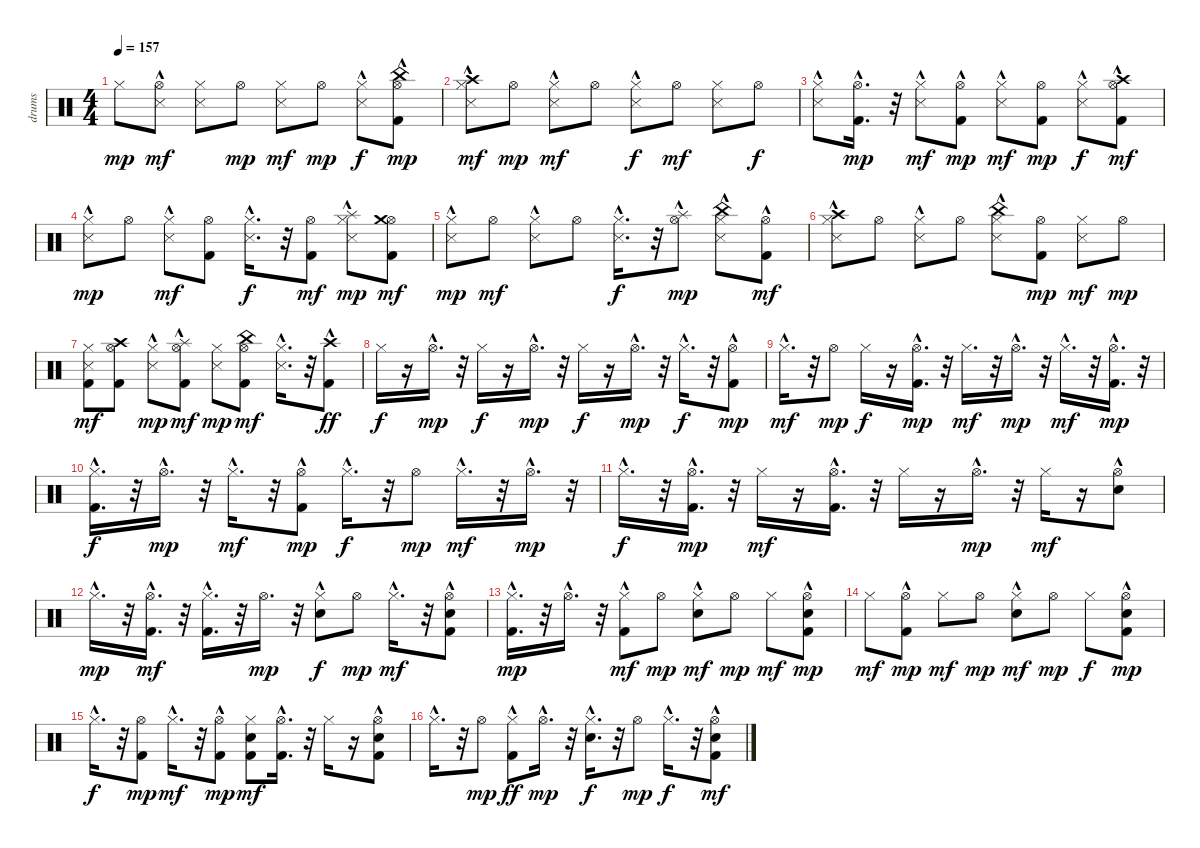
\track ("drums   " "drums   ") {instrument percussion}
\staff {score}
\articulation defaults
\ts (4 4)
\tempo 157
\clef neutral
\ks c "Hi-Hat (closed)".8{dy mp}
("Snare (side stick) 3"{hac} "Hi-Hat (open)").8{dy mf} ("Snare (side stick) 3" "Hi-Hat (closed)").8 "Hi-Hat (open)".8{dy mp} ("Snare (side stick) 3" "Hi-Hat (closed)").8{dy mf} "Hi-Hat (open)".8{dy mp} ("Snare (side stick) 3"{hac} "Hi-Hat (closed)").8{dy f} ("Kick (hit) 2" "Hi-Hat (open)" "China (hit)"{hac}).8{dy mp} |
("Snare (side stick) 3"{hac} "Hi-Hat (closed)" "Crash high (hit)"{hac}).8{dy mf} "Hi-Hat (open)".8{dy mp} ("Snare (side stick) 3"{hac} "Hi-Hat (closed)").8{dy mf} "Hi-Hat (open)".8 ("Snare (side stick) 3"{hac} "Hi-Hat (closed)").8{dy f} "Hi-Hat (open)".8{dy mf} ("Snare (side stick) 3" "Hi-Hat (closed)").8 "Hi-Hat (open)".8{dy f} |
("Snare (side stick) 3"{hac} "Hi-Hat (closed)").8 ("Kick (hit) 2"{hac} "Hi-Hat (open)"{hac}).16{d dy mp} r.32 ("Snare (side stick) 3"{hac} "Hi-Hat (closed)").8{dy mf} ("Kick (hit) 2"{hac} "Hi-Hat (open)").8{dy mp} ("Snare (side stick) 3" "Hi-Hat (closed)"{hac}).8{dy mf} ("Kick (hit) 2" "Hi-Hat (open)").8{dy mp} ("Snare (side stick) 3"{hac} "Hi-Hat (closed)").8{dy f} ("Kick (hit) 2" "Hi-Hat (open)" "Crash high (hit)"{hac}).8{dy mf} |
("Snare (side stick) 3" "Hi-Hat (closed)"{hac}).8{dy mp} "Hi-Hat (open)".8 ("Snare (side stick) 3"{hac} "Hi-Hat (closed)").8{dy mf} ("Kick (hit) 2" "Hi-Hat (open)").8 ("Snare (side stick) 3"{hac} "Hi-Hat (closed)"{hac}).16{d dy f} r.32 ("Kick (hit) 2" "Hi-Hat (open)").8{dy mf} ("Snare (side stick) 3"{hac} "Hi-Hat (closed)" "Splash (hit)").8{dy mp} ("Kick (hit) 2" "Hi-Hat (open)" "Crash medium (hit)").8{dy mf} |
("Snare (side stick) 3"{hac} "Hi-Hat (closed)").8{dy mp} "Hi-Hat (open)".8{dy mf} ("Snare (side stick) 3"{hac} "Hi-Hat (closed)").8 "Hi-Hat (open)".8 ("Snare (side stick) 3" "Hi-Hat (closed)"{hac}).16{d dy f} r.32 ("Hi-Hat (open)" "Splash (hit)"{hac}).8{dy mp} ("Snare (side stick) 3"{hac} "Hi-Hat (closed)" "China (hit)"{hac}).8 ("Kick (hit) 2"{hac} "Hi-Hat (open)").8{dy mf} |
("Snare (side stick) 3" "Hi-Hat (closed)" "Crash high (hit)"{hac}).8 "Hi-Hat (open)".8 ("Snare (side stick) 3"{hac} "Hi-Hat (closed)").8 "Hi-Hat (open)".8 ("Snare (side stick) 3" "Hi-Hat (closed)"{hac} "China (hit)"{hac}).8 ("Kick (hit) 2" "Hi-Hat (open)").8{dy mp} ("Snare (side stick) 3" "Hi-Hat (closed)").8{dy mf} "Hi-Hat (open)".8{dy mp} |
("Kick (hit) 2" "Snare (side stick) 3" "Hi-Hat (closed)").8{dy mf} ("Kick (hit) 2" "Hi-Hat (open)" "Crash high (hit)").8 ("Snare (side stick) 3"{hac} "Hi-Hat (closed)").8{dy mp} ("Kick (hit) 2"{hac} "Hi-Hat (open)" "Splash (hit)").8{dy mf} ("Snare (side stick) 3" "Hi-Hat (closed)").8{dy mp} ("Kick (hit) 2" "Hi-Hat (open)" "China (hit)").8{dy mf} ("Snare (side stick) 3" "Hi-Hat (closed)"{hac}).16{d} r.32 ("Kick (hit) 2" "Crash high (hit)"{hac}).8{dy ff} |
"Hi-Hat (closed)".16{dy f} r.16 "Hi-Hat (open)"{hac}.16{d dy mp} r.32 "Hi-Hat (closed)".16{dy f} r.16 "Hi-Hat (open)"{hac}.16{d dy mp} r.32 "Hi-Hat (closed)".16{dy f} r.16 "Hi-Hat (open)"{hac}.16{d dy mp} r.32 "Hi-Hat (closed)"{hac}.16{d dy f} r.32 ("Kick (hit) 2"{hac} "Hi-Hat (open)").8{dy mp} |
"Hi-Hat (closed)"{hac}.16{d dy mf} r.32 "Hi-Hat (open)".8{dy mp} "Hi-Hat (closed)".16{dy f} r.16 ("Kick (hit) 2"{hac} "Hi-Hat (open)").16{d dy mp} r.32 "Hi-Hat (closed)".16{d dy mf} r.32 "Hi-Hat (open)"{hac}.16{d dy mp} r.32 "Hi-Hat (closed)"{hac}.16{d dy mf} r.32 ("Kick (hit) 2"{hac} "Hi-Hat (open)"{hac}).16{d dy mp} r.32 |
("Kick (hit) 2"{hac} "Hi-Hat (closed)"{hac}).16{d dy f} r.32 "Hi-Hat (open)"{hac}.16{d dy mp} r.32 "Hi-Hat (closed)"{hac}.16{d dy mf} r.32 ("Kick (hit) 2"{hac} "Hi-Hat (open)").8{dy mp} "Hi-Hat (closed)"{hac}.16{d dy f} r.32 "Hi-Hat (open)".8{dy mp} "Hi-Hat (closed)"{hac}.16{d dy mf} r.32 "Hi-Hat (open)"{hac}.16{d dy mp} r.32 |
"Hi-Hat (closed)"{hac}.16{d dy f} r.32 ("Kick (hit) 2"{hac} "Hi-Hat (open)"{hac}).16{d dy mp} r.32 "Hi-Hat (closed)".16{dy mf} r.16 ("Kick (hit) 2"{hac} "Hi-Hat (open)"{hac}).16{d} r.32 "Hi-Hat (closed)".16 r.16 "Hi-Hat (open)"{hac}.16{d dy mp} r.32 "Hi-Hat (closed)".16{dy mf} r.16 ("Electric Snare (hit)" "Hi-Hat (open)"{hac}).8 |
"Hi-Hat (closed)"{hac}.16{d dy mp} r.32 ("Kick (hit) 2"{hac} "Hi-Hat (open)"{hac}).16{d dy mf} r.32 ("Kick (hit) 2"{hac} "Hi-Hat (closed)").16{d} r.32 "Hi-Hat (open)".16{d dy mp} r.32 ("Snare (hit) 2" "Hi-Hat (closed)"{hac}).8{dy f} "Hi-Hat (open)".8{dy mp} "Hi-Hat (closed)"{hac}.16{d dy mf} r.32 ("Kick (hit) 2"{hac} "Snare (hit) 2"{hac} "Hi-Hat (open)").8 |
("Kick (hit) 2"{hac} "Hi-Hat (closed)"{hac}).16{d dy mp} r.32 "Hi-Hat (open)"{hac}.16{d} r.32 ("Kick (hit) 2" "Hi-Hat (closed)"{hac}).8{dy mf} "Hi-Hat (open)".8{dy mp} ("Snare (hit) 2" "Hi-Hat (closed)"{hac}).8{dy mf} "Hi-Hat (open)".8{dy mp} "Hi-Hat (closed)".8{dy mf} ("Kick (hit) 2" "Snare (hit) 2"{hac} "Hi-Hat (open)").8{dy mp} |
"Hi-Hat (closed)".8{dy mf} ("Kick (hit) 2"{hac} "Hi-Hat (open)").8{dy mp} "Hi-Hat (closed)".8{dy mf} "Hi-Hat (open)".8{dy mp} ("Snare (hit) 2"{hac} "Hi-Hat (closed)").8{dy mf} "Hi-Hat (open)".8{dy mp} "Hi-Hat (closed)".8{dy f} ("Kick (hit) 2" "Snare (hit) 2"{hac} "Hi-Hat (open)").8{dy mp} |
"Hi-Hat (closed)"{hac}.16{d dy f} r.32 ("Kick (hit) 2" "Hi-Hat (open)").8{dy mp} "Hi-Hat (closed)"{hac}.16{d dy mf} r.32 ("Kick (hit) 2"{hac} "Hi-Hat (open)").8{dy mp} ("Kick (hit) 2" "Snare (hit) 2" "Hi-Hat (closed)").8{dy mf} ("Kick (hit) 2"{hac} "Hi-Hat (open)"{hac}).16{d} r.32 "Hi-Hat (closed)".16 r.16 ("Kick (hit) 2"{hac} "Snare (hit) 2"{hac} "Hi-Hat (open)").8 |
"Hi-Hat (closed)"{hac}.16{d} r.32 "Hi-Hat (open)".8{dy mp} ("Kick (hit) 2" "Hi-Hat (closed)"{hac}).8{dy ff} "Hi-Hat (open)"{hac}.16{d dy mp} r.32 ("Snare (hit) 2"{hac} "Hi-Hat (closed)"{hac}).16{d dy f} r.32 "Hi-Hat (open)".8{dy mp} "Hi-Hat (closed)"{hac}.16{d dy f} r.32 ("Kick (hit) 2"{hac} "Snare (hit) 2"{hac} "Hi-Hat (open)").8{dy mf}
